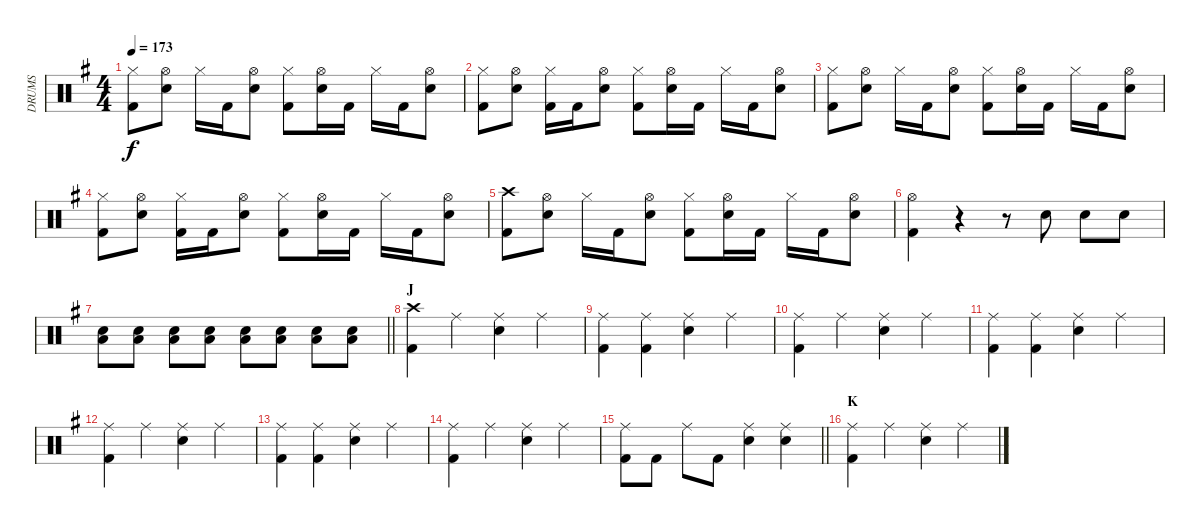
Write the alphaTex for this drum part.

\track ("DRUMS" "DRUMS") {instrument percussion}
\staff {score}
\articulation defaults
\ts (4 4)
\tempo 173
\clef neutral
\ks g
("Hi-Hat (closed)" "Kick (hit) 2").8{dy f} ("Hi-Hat (open)" "Snare (hit) 2").8 "Hi-Hat (closed)".16 "Kick (hit) 2".16 ("Hi-Hat (open)" "Snare (hit) 2").8 ("Hi-Hat (closed)" "Kick (hit) 2").8 ("Hi-Hat (open)" "Snare (hit) 2").16 "Kick (hit) 2".16 "Hi-Hat (closed)".16 "Kick (hit) 2".16 ("Hi-Hat (open)" "Snare (hit) 2").8 |
("Hi-Hat (closed)" "Kick (hit) 2").8 ("Hi-Hat (open)" "Snare (hit) 2").8 ("Hi-Hat (closed)" "Kick (hit) 2").16 "Kick (hit) 2".16 ("Hi-Hat (open)" "Snare (hit) 2").8 ("Hi-Hat (closed)" "Kick (hit) 2").8 ("Hi-Hat (open)" "Snare (hit) 2").16 "Kick (hit) 2".16 "Hi-Hat (closed)".16 "Kick (hit) 2".16 ("Hi-Hat (open)" "Snare (hit) 2").8 |
("Hi-Hat (closed)" "Kick (hit) 2").8 ("Hi-Hat (open)" "Snare (hit) 2").8 "Hi-Hat (closed)".16 "Kick (hit) 2".16 ("Hi-Hat (open)" "Snare (hit) 2").8 ("Hi-Hat (closed)" "Kick (hit) 2").8 ("Hi-Hat (open)" "Snare (hit) 2").16 "Kick (hit) 2".16 "Hi-Hat (closed)".16 "Kick (hit) 2".16 ("Hi-Hat (open)" "Snare (hit) 2").8 |
("Hi-Hat (closed)" "Kick (hit) 2").8 ("Hi-Hat (open)" "Snare (hit) 2").8 ("Hi-Hat (closed)" "Kick (hit) 2").16 "Kick (hit) 2".16 ("Hi-Hat (open)" "Snare (hit) 2").8 ("Hi-Hat (closed)" "Kick (hit) 2").8 ("Hi-Hat (open)" "Snare (hit) 2").16 "Kick (hit) 2".16 "Hi-Hat (closed)".16 "Kick (hit) 2".16 ("Hi-Hat (open)" "Snare (hit) 2").8 |
("Crash high (hit)" "Kick (hit) 2").8 ("Hi-Hat (open)" "Snare (hit) 2").8 "Hi-Hat (closed)".16 "Kick (hit) 2".16 ("Hi-Hat (open)" "Snare (hit) 2").8 ("Hi-Hat (closed)" "Kick (hit) 2").8 ("Hi-Hat (open)" "Snare (hit) 2").16 "Kick (hit) 2".16 "Hi-Hat (closed)".16 "Kick (hit) 2".16 ("Hi-Hat (open)" "Snare (hit) 2").8 |
("Hi-Hat (open)" "Kick (hit) 2").4 r.4 r.8 "Snare (hit) 2".8 "Snare (hit) 2".8 "Snare (hit) 2".8 |
\barLineRight lightlight
("Snare (hit) 2" "Low Floor Tom (hit)").8 ("Snare (hit) 2" "Low Floor Tom (hit)").8 ("Snare (hit) 2" "Low Floor Tom (hit)").8 ("Snare (hit) 2" "Low Floor Tom (hit)").8 ("Snare (hit) 2" "Low Floor Tom (hit)").8 ("Snare (hit) 2" "Low Floor Tom (hit)").8 ("Snare (hit) 2" "Low Floor Tom (hit)").8 ("Snare (hit) 2" "Low Floor Tom (hit)").8 |
\section ("" "J")
("Crash high (hit)" "Kick (hit) 2").4 "Ride (middle)".4 ("Ride (middle)" "Snare (hit) 2").4 "Ride (middle)".4 |
("Ride (middle)" "Kick (hit) 2").4 ("Ride (middle)" "Kick (hit) 2").4 ("Ride (middle)" "Snare (hit) 2").4 "Ride (middle)".4 |
("Ride (middle)" "Kick (hit) 2").4 "Ride (middle)".4 ("Ride (middle)" "Snare (hit) 2").4 "Ride (middle)".4 |
("Ride (middle)" "Kick (hit) 2").4 ("Ride (middle)" "Kick (hit) 2").4 ("Ride (middle)" "Snare (hit) 2").4 "Ride (middle)".4 |
("Ride (middle)" "Kick (hit) 2").4 "Ride (middle)".4 ("Ride (middle)" "Snare (hit) 2").4 "Ride (middle)".4 |
("Ride (middle)" "Kick (hit) 2").4 ("Ride (middle)" "Kick (hit) 2").4 ("Ride (middle)" "Snare (hit) 2").4 "Ride (middle)".4 |
("Ride (middle)" "Kick (hit) 2").4 "Ride (middle)".4 ("Ride (middle)" "Snare (hit) 2").4 "Ride (middle)".4 |
\barLineRight lightlight
("Ride (middle)" "Kick (hit) 2").8 "Kick (hit) 2".8 "Ride (middle)".8 "Kick (hit) 2".8 ("Ride (middle)" "Snare (hit) 2").4 ("Ride (middle)" "Snare (hit) 2").4 |
\section ("" "K")
("Ride (middle)" "Kick (hit) 2").4 "Ride (middle)".4 ("Ride (middle)" "Snare (hit) 2").4 "Ride (middle)".4
